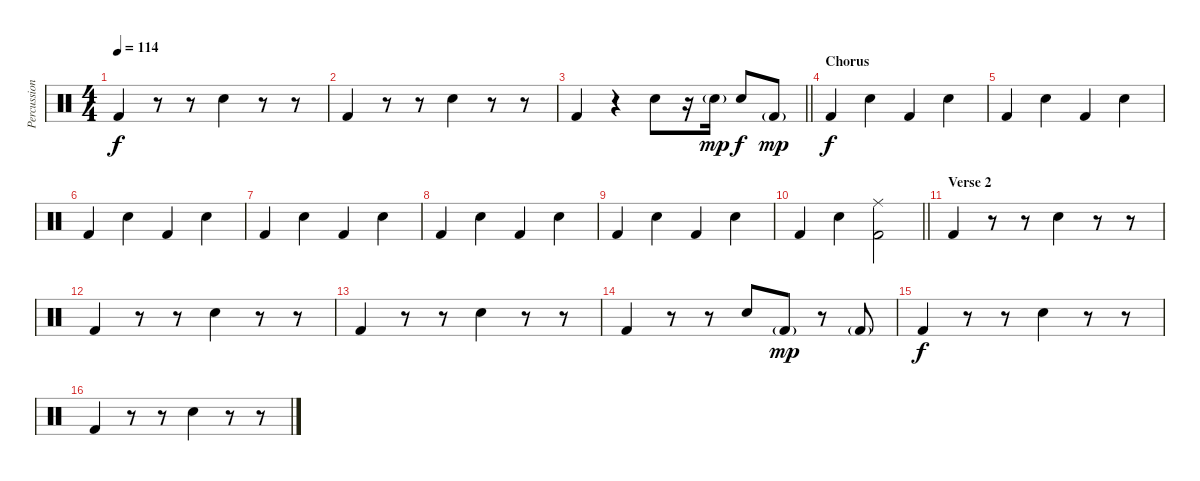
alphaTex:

\track ("Percussion" "Percussion") {instrument percussion}
\staff {score}
\articulation defaults
\ts (4 4)
\tempo 114
\clef neutral
\ks c "Kick (hit) 2".4{dy f}
r.8 r.8 "Snare (hit) 2".4 r.8 r.8 |
"Kick (hit) 2".4 r.8 r.8 "Snare (hit) 2".4 r.8 r.8 |
\barLineRight lightlight "Kick (hit) 2".4
r.4 "Snare (hit) 2".8 r.16 "Snare (hit) 2"{g}.16{dy mp} "Snare (hit) 2".8{dy f} "Kick (hit) 2"{g}.8{dy mp} |
\section ("" "Chorus")
"Kick (hit) 2".4{dy f} "Snare (hit) 2".4 "Kick (hit) 2".4 "Snare (hit) 2".4 |
"Kick (hit) 2".4 "Snare (hit) 2".4 "Kick (hit) 2".4 "Snare (hit) 2".4 |
"Kick (hit) 2".4 "Snare (hit) 2".4 "Kick (hit) 2".4 "Snare (hit) 2".4 |
"Kick (hit) 2".4 "Snare (hit) 2".4 "Kick (hit) 2".4 "Snare (hit) 2".4 |
"Kick (hit) 2".4 "Snare (hit) 2".4 "Kick (hit) 2".4 "Snare (hit) 2".4 |
"Kick (hit) 2".4 "Snare (hit) 2".4 "Kick (hit) 2".4 "Snare (hit) 2".4 |
\barLineRight lightlight "Kick (hit) 2".4 "Snare (hit) 2".4
("Ride (middle)" "Kick (hit) 2").2 |
\section ("" "Verse 2")
"Kick (hit) 2".4 r.8 r.8 "Snare (hit) 2".4 r.8 r.8 |
"Kick (hit) 2".4 r.8 r.8 "Snare (hit) 2".4 r.8 r.8 |
"Kick (hit) 2".4 r.8 r.8 "Snare (hit) 2".4 r.8 r.8 |
"Kick (hit) 2".4 r.8 r.8 "Snare (hit) 2".8 "Kick (hit) 2"{g}.8{dy mp} r.8 "Kick (hit) 2"{g}.8 |
"Kick (hit) 2".4{dy f} r.8 r.8 "Snare (hit) 2".4 r.8 r.8 |
"Kick (hit) 2".4 r.8 r.8 "Snare (hit) 2".4 r.8 r.8
